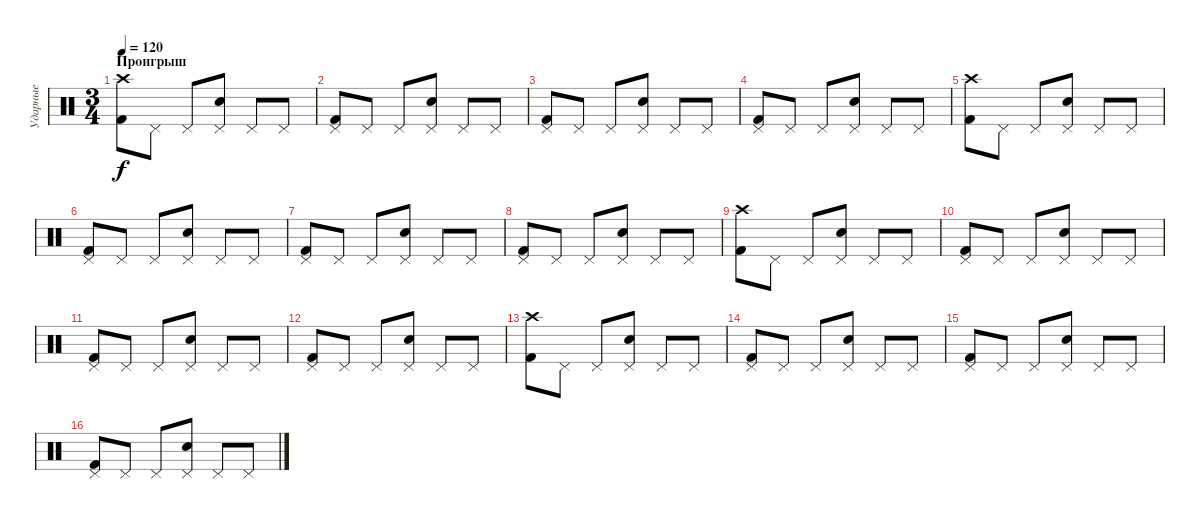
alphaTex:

\track ("Ударные" "Ударные") {instrument percussion}
\staff {score}
\articulation defaults
\ts (3 4)
\section ("" "Проигрыш")
\tempo 120
\clef neutral
\ks c
("Crash high (hit)" "Kick (hit) 2").8{dy f} "Pedal Hi-Hat (hit)".8 "Pedal Hi-Hat (hit)".8 ("Pedal Hi-Hat (hit)" "Snare (hit) 2").8 "Pedal Hi-Hat (hit)".8 "Pedal Hi-Hat (hit)".8 |
("Pedal Hi-Hat (hit)" "Kick (hit) 2").8 "Pedal Hi-Hat (hit)".8 "Pedal Hi-Hat (hit)".8 ("Pedal Hi-Hat (hit)" "Snare (hit) 2").8 "Pedal Hi-Hat (hit)".8 "Pedal Hi-Hat (hit)".8 |
("Pedal Hi-Hat (hit)" "Kick (hit) 2").8 "Pedal Hi-Hat (hit)".8 "Pedal Hi-Hat (hit)".8 ("Pedal Hi-Hat (hit)" "Snare (hit) 2").8 "Pedal Hi-Hat (hit)".8 "Pedal Hi-Hat (hit)".8 |
("Pedal Hi-Hat (hit)" "Kick (hit) 2").8 "Pedal Hi-Hat (hit)".8 "Pedal Hi-Hat (hit)".8 ("Pedal Hi-Hat (hit)" "Snare (hit) 2").8 "Pedal Hi-Hat (hit)".8 "Pedal Hi-Hat (hit)".8 |
("Crash high (hit)" "Kick (hit) 2").8 "Pedal Hi-Hat (hit)".8 "Pedal Hi-Hat (hit)".8 ("Pedal Hi-Hat (hit)" "Snare (hit) 2").8 "Pedal Hi-Hat (hit)".8 "Pedal Hi-Hat (hit)".8 |
("Pedal Hi-Hat (hit)" "Kick (hit) 2").8 "Pedal Hi-Hat (hit)".8 "Pedal Hi-Hat (hit)".8 ("Pedal Hi-Hat (hit)" "Snare (hit) 2").8 "Pedal Hi-Hat (hit)".8 "Pedal Hi-Hat (hit)".8 |
("Pedal Hi-Hat (hit)" "Kick (hit) 2").8 "Pedal Hi-Hat (hit)".8 "Pedal Hi-Hat (hit)".8 ("Pedal Hi-Hat (hit)" "Snare (hit) 2").8 "Pedal Hi-Hat (hit)".8 "Pedal Hi-Hat (hit)".8 |
("Pedal Hi-Hat (hit)" "Kick (hit) 2").8 "Pedal Hi-Hat (hit)".8 "Pedal Hi-Hat (hit)".8 ("Pedal Hi-Hat (hit)" "Snare (hit) 2").8 "Pedal Hi-Hat (hit)".8 "Pedal Hi-Hat (hit)".8 |
("Crash high (hit)" "Kick (hit) 2").8 "Pedal Hi-Hat (hit)".8 "Pedal Hi-Hat (hit)".8 ("Pedal Hi-Hat (hit)" "Snare (hit) 2").8 "Pedal Hi-Hat (hit)".8 "Pedal Hi-Hat (hit)".8 |
("Pedal Hi-Hat (hit)" "Kick (hit) 2").8 "Pedal Hi-Hat (hit)".8 "Pedal Hi-Hat (hit)".8 ("Pedal Hi-Hat (hit)" "Snare (hit) 2").8 "Pedal Hi-Hat (hit)".8 "Pedal Hi-Hat (hit)".8 |
("Pedal Hi-Hat (hit)" "Kick (hit) 2").8 "Pedal Hi-Hat (hit)".8 "Pedal Hi-Hat (hit)".8 ("Pedal Hi-Hat (hit)" "Snare (hit) 2").8 "Pedal Hi-Hat (hit)".8 "Pedal Hi-Hat (hit)".8 |
("Pedal Hi-Hat (hit)" "Kick (hit) 2").8 "Pedal Hi-Hat (hit)".8 "Pedal Hi-Hat (hit)".8 ("Pedal Hi-Hat (hit)" "Snare (hit) 2").8 "Pedal Hi-Hat (hit)".8 "Pedal Hi-Hat (hit)".8 |
("Crash high (hit)" "Kick (hit) 2").8 "Pedal Hi-Hat (hit)".8 "Pedal Hi-Hat (hit)".8 ("Pedal Hi-Hat (hit)" "Snare (hit) 2").8 "Pedal Hi-Hat (hit)".8 "Pedal Hi-Hat (hit)".8 |
("Pedal Hi-Hat (hit)" "Kick (hit) 2").8 "Pedal Hi-Hat (hit)".8 "Pedal Hi-Hat (hit)".8 ("Pedal Hi-Hat (hit)" "Snare (hit) 2").8 "Pedal Hi-Hat (hit)".8 "Pedal Hi-Hat (hit)".8 |
("Pedal Hi-Hat (hit)" "Kick (hit) 2").8 "Pedal Hi-Hat (hit)".8 "Pedal Hi-Hat (hit)".8 ("Pedal Hi-Hat (hit)" "Snare (hit) 2").8 "Pedal Hi-Hat (hit)".8 "Pedal Hi-Hat (hit)".8 |
("Pedal Hi-Hat (hit)" "Kick (hit) 2").8 "Pedal Hi-Hat (hit)".8 "Pedal Hi-Hat (hit)".8 ("Pedal Hi-Hat (hit)" "Snare (hit) 2").8 "Pedal Hi-Hat (hit)".8 "Pedal Hi-Hat (hit)".8
